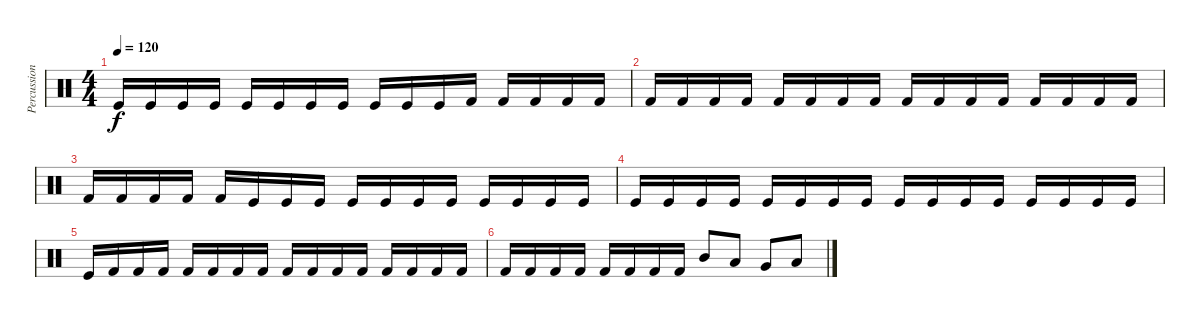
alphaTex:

\track ("Percussion" "Percussion") {instrument percussion}
\staff {score}
\articulation defaults
\ts (4 4)
\tempo 120
\clef neutral
\ks c "Kick (hit)".16{dy f} "Kick (hit)".16 "Kick (hit)".16 "Kick (hit)".16 "Kick (hit)".16 "Kick (hit)".16 "Kick (hit)".16 "Kick (hit)".16 "Kick (hit)".16 "Kick (hit)".16 "Kick (hit)".16 "Kick (hit) 2".16 "Kick (hit) 2".16 "Kick (hit) 2".16 "Kick (hit) 2".16 "Kick (hit) 2".16
|
"Kick (hit) 2".16 "Kick (hit) 2".16 "Kick (hit) 2".16 "Kick (hit) 2".16 "Kick (hit) 2".16 "Kick (hit) 2".16 "Kick (hit) 2".16 "Kick (hit) 2".16 "Kick (hit) 2".16 "Kick (hit) 2".16 "Kick (hit) 2".16 "Kick (hit) 2".16 "Kick (hit) 2".16 "Kick (hit) 2".16 "Kick (hit) 2".16 "Kick (hit) 2".16 |
"Kick (hit) 2".16 "Kick (hit) 2".16 "Kick (hit) 2".16 "Kick (hit) 2".16 "Kick (hit) 2".16 "Kick (hit)".16 "Kick (hit)".16 "Kick (hit)".16 "Kick (hit)".16 "Kick (hit)".16 "Kick (hit)".16 "Kick (hit)".16 "Kick (hit)".16 "Kick (hit)".16 "Kick (hit)".16 "Kick (hit)".16 |
"Kick (hit)".16 "Kick (hit)".16 "Kick (hit)".16 "Kick (hit)".16 "Kick (hit)".16 "Kick (hit)".16 "Kick (hit)".16 "Kick (hit)".16 "Kick (hit)".16 "Kick (hit)".16 "Kick (hit)".16 "Kick (hit)".16 "Kick (hit)".16 "Kick (hit)".16 "Kick (hit)".16 "Kick (hit)".16 |
"Kick (hit)".16 "Kick (hit) 2".16 "Kick (hit) 2".16 "Kick (hit) 2".16 "Kick (hit) 2".16 "Kick (hit) 2".16 "Kick (hit) 2".16 "Kick (hit) 2".16 "Kick (hit) 2".16 "Kick (hit) 2".16 "Kick (hit) 2".16 "Kick (hit) 2".16 "Kick (hit) 2".16 "Kick (hit) 2".16 "Kick (hit) 2".16 "Kick (hit) 2".16 |
"Kick (hit) 2".16 "Kick (hit) 2".16 "Kick (hit) 2".16 "Kick (hit) 2".16 "Kick (hit) 2".16 "Kick (hit) 2".16 "Kick (hit) 2".16 "Kick (hit) 2".16 "Mid Tom (hit)".8 "Low Tom (hit)".8 "Very Low Tom (hit)".8 "Low Floor Tom (hit)".8
